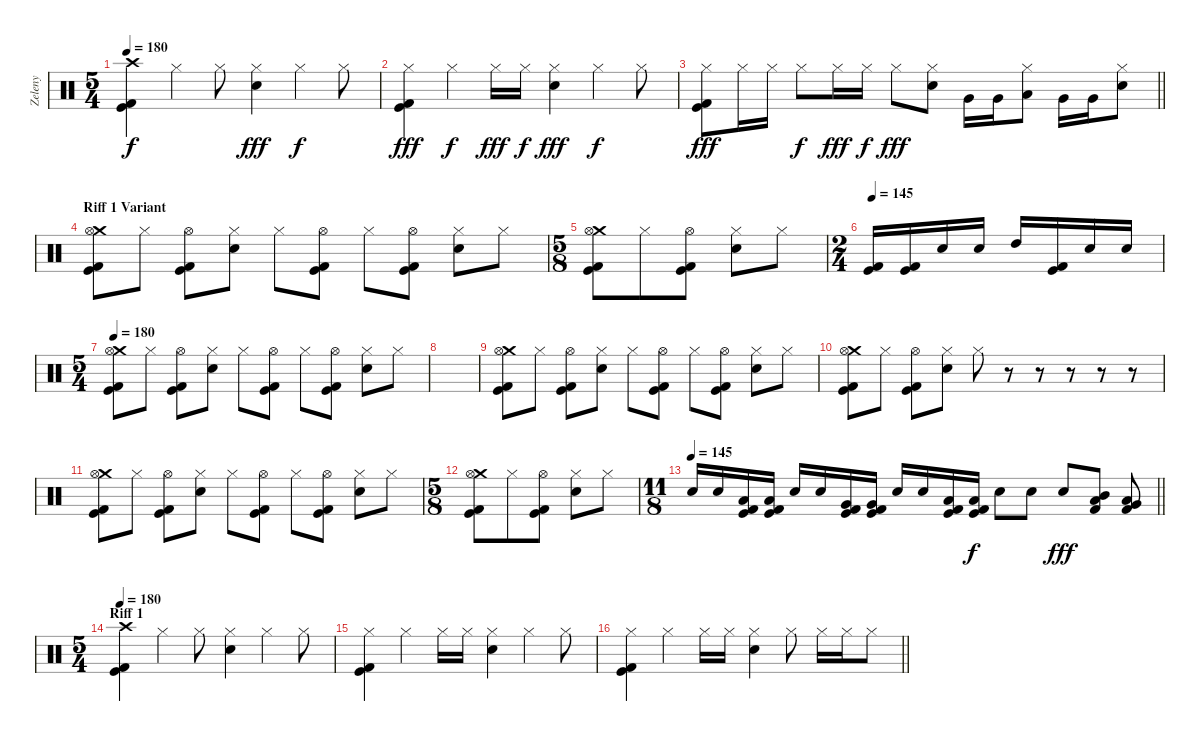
\track ("Zeleny" "Zeleny") {instrument percussion}
\staff {score}
\articulation defaults
\ts (5 4)
\tempo 180
\clef neutral
\ks c
("Crash high (hit)" "Kick (hit)" "Kick (hit) 2").4{dy f} "Hi-Hat (closed)".4 "Hi-Hat (closed)".8 ("Hi-Hat (closed)" "Snare (hit) 2").4{dy fff} "Hi-Hat (closed)".4{dy f} "Hi-Hat (closed)".8 |
("Hi-Hat (closed)" "Kick (hit)" "Kick (hit) 2").4{dy fff} "Hi-Hat (closed)".4{dy f} "Hi-Hat (closed)".16{dy fff} "Hi-Hat (closed)".16{dy f} ("Hi-Hat (closed)" "Snare (hit) 2").4{dy fff} "Hi-Hat (closed)".4{dy f} "Hi-Hat (closed)".8 |
\barLineRight lightlight
("Hi-Hat (closed)" "Kick (hit)" "Kick (hit) 2").8{dy fff} "Hi-Hat (closed)".16 "Hi-Hat (closed)".16 "Hi-Hat (closed)".8{dy f} "Hi-Hat (closed)".16{dy fff} "Hi-Hat (closed)".16{dy f} "Hi-Hat (closed)".8{dy fff} ("Hi-Hat (closed)" "Snare (hit) 2").8 "Very Low Tom (hit)".16 "Very Low Tom (hit)".16 ("Hi-Hat (closed)" "Low Tom (hit)").8 "Very Low Tom (hit)".16 "Very Low Tom (hit)".16 ("Hi-Hat (closed)" "Snare (hit) 2").8 |
\section ("" "Riff 1 Variant")
("Crash medium (hit)" "Hi-Hat (open)" "Kick (hit)" "Kick (hit) 2").8 "Hi-Hat (closed)".8 ("Hi-Hat (open)" "Kick (hit)" "Kick (hit) 2").8 ("Hi-Hat (closed)" "Snare (hit) 2").8 "Hi-Hat (closed)".8 ("Hi-Hat (open)" "Kick (hit)" "Kick (hit) 2").8 "Hi-Hat (closed)".8 ("Hi-Hat (open)" "Kick (hit)" "Kick (hit) 2").8 ("Hi-Hat (closed)" "Snare (hit) 2").8 "Hi-Hat (closed)".8 |
\ts (5 8)
("Crash medium (hit)" "Hi-Hat (open)" "Kick (hit)" "Kick (hit) 2").8 "Hi-Hat (closed)".8 ("Hi-Hat (open)" "Kick (hit)" "Kick (hit) 2").8 ("Hi-Hat (closed)" "Snare (hit) 2").8 "Hi-Hat (closed)".8 |
\ts (2 4)
\tempo 145
("Kick (hit)" "Kick (hit) 2").16 ("Kick (hit)" "Kick (hit) 2").16 "Snare (hit) 2".16 "Snare (hit) 2".16 "High Tom (hit)".16 ("Kick (hit)" "Kick (hit) 2").16 "Snare (hit) 2".16 "Snare (hit) 2".16 |
\ts (5 4)
\tempo 180
("Crash medium (hit)" "Hi-Hat (open)" "Kick (hit)" "Kick (hit) 2").8 "Hi-Hat (closed)".8 ("Hi-Hat (open)" "Kick (hit)" "Kick (hit) 2").8 ("Hi-Hat (closed)" "Snare (hit) 2").8 "Hi-Hat (closed)".8 ("Hi-Hat (open)" "Kick (hit)" "Kick (hit) 2").8 "Hi-Hat (closed)".8 ("Hi-Hat (open)" "Kick (hit)" "Kick (hit) 2").8 ("Hi-Hat (closed)" "Snare (hit) 2").8 "Hi-Hat (closed)".8 |
|
("Crash medium (hit)" "Hi-Hat (open)" "Kick (hit)" "Kick (hit) 2").8 "Hi-Hat (closed)".8 ("Hi-Hat (open)" "Kick (hit)" "Kick (hit) 2").8 ("Hi-Hat (closed)" "Snare (hit) 2").8 "Hi-Hat (closed)".8 ("Hi-Hat (open)" "Kick (hit)" "Kick (hit) 2").8 "Hi-Hat (closed)".8 ("Hi-Hat (open)" "Kick (hit)" "Kick (hit) 2").8 ("Hi-Hat (closed)" "Snare (hit) 2").8 "Hi-Hat (closed)".8 |
("Crash medium (hit)" "Hi-Hat (open)" "Kick (hit)" "Kick (hit) 2").8 "Hi-Hat (closed)".8 ("Hi-Hat (open)" "Kick (hit)" "Kick (hit) 2").8 ("Hi-Hat (closed)" "Snare (hit) 2").8 "Hi-Hat (closed)".8 r.8 r.8 r.8 r.8 r.8 |
("Crash medium (hit)" "Hi-Hat (open)" "Kick (hit)" "Kick (hit) 2").8 "Hi-Hat (closed)".8 ("Hi-Hat (open)" "Kick (hit)" "Kick (hit) 2").8 ("Hi-Hat (closed)" "Snare (hit) 2").8 "Hi-Hat (closed)".8 ("Hi-Hat (open)" "Kick (hit)" "Kick (hit) 2").8 "Hi-Hat (closed)".8 ("Hi-Hat (open)" "Kick (hit)" "Kick (hit) 2").8 ("Hi-Hat (closed)" "Snare (hit) 2").8 "Hi-Hat (closed)".8 |
\ts (5 8)
("Crash medium (hit)" "Hi-Hat (open)" "Kick (hit)" "Kick (hit) 2").8 "Hi-Hat (closed)".8 ("Hi-Hat (open)" "Kick (hit)" "Kick (hit) 2").8 ("Hi-Hat (closed)" "Snare (hit) 2").8 "Hi-Hat (closed)".8 |
\ts (11 8)
\tempo 145
\barLineRight lightlight "Snare (hit) 2".16 "Snare (hit) 2".16
("Low Tom (hit)" "Kick (hit)" "Kick (hit) 2").16 ("Low Tom (hit)" "Kick (hit)" "Kick (hit) 2").16 "Snare (hit) 2".16 "Snare (hit) 2".16 ("Very Low Tom (hit)" "Kick (hit)" "Kick (hit) 2").16 ("Very Low Tom (hit)" "Kick (hit)" "Kick (hit) 2").16 "Snare (hit) 2".16 "Snare (hit) 2".16 ("Low Floor Tom (hit)" "Kick (hit)" "Kick (hit) 2").16 ("Kick (hit)" "Low Floor Tom (hit)" "Kick (hit) 2").16{dy f} "Snare (hit) 2".8 "Snare (hit) 2".8 "Snare (hit) 2".8{dy fff} ("Low Tom (hit)" "Mid Tom (hit)" "Kick (hit) 2").8 ("Low Floor Tom (hit)" "Very Low Tom (hit)" "Kick (hit) 2").8 |
\ts (5 4)
\section ("" "Riff 1")
\tempo 180
("Crash high (hit)" "Kick (hit)" "Kick (hit) 2").4 "Hi-Hat (closed)".4 "Hi-Hat (closed)".8 ("Hi-Hat (closed)" "Snare (hit) 2").4 "Hi-Hat (closed)".4 "Hi-Hat (closed)".8 |
("Hi-Hat (closed)" "Kick (hit)" "Kick (hit) 2").4 "Hi-Hat (closed)".4 "Hi-Hat (closed)".16 "Hi-Hat (closed)".16 ("Hi-Hat (closed)" "Snare (hit) 2").4 "Hi-Hat (closed)".4 "Hi-Hat (closed)".8 |
\barLineRight lightlight
("Hi-Hat (closed)" "Kick (hit)" "Kick (hit) 2").4 "Hi-Hat (closed)".4 "Hi-Hat (closed)".16 "Hi-Hat (closed)".16 ("Hi-Hat (closed)" "Snare (hit) 2").4 "Hi-Hat (closed)".8 "Hi-Hat (closed)".16 "Hi-Hat (closed)".16 "Hi-Hat (closed)".8
